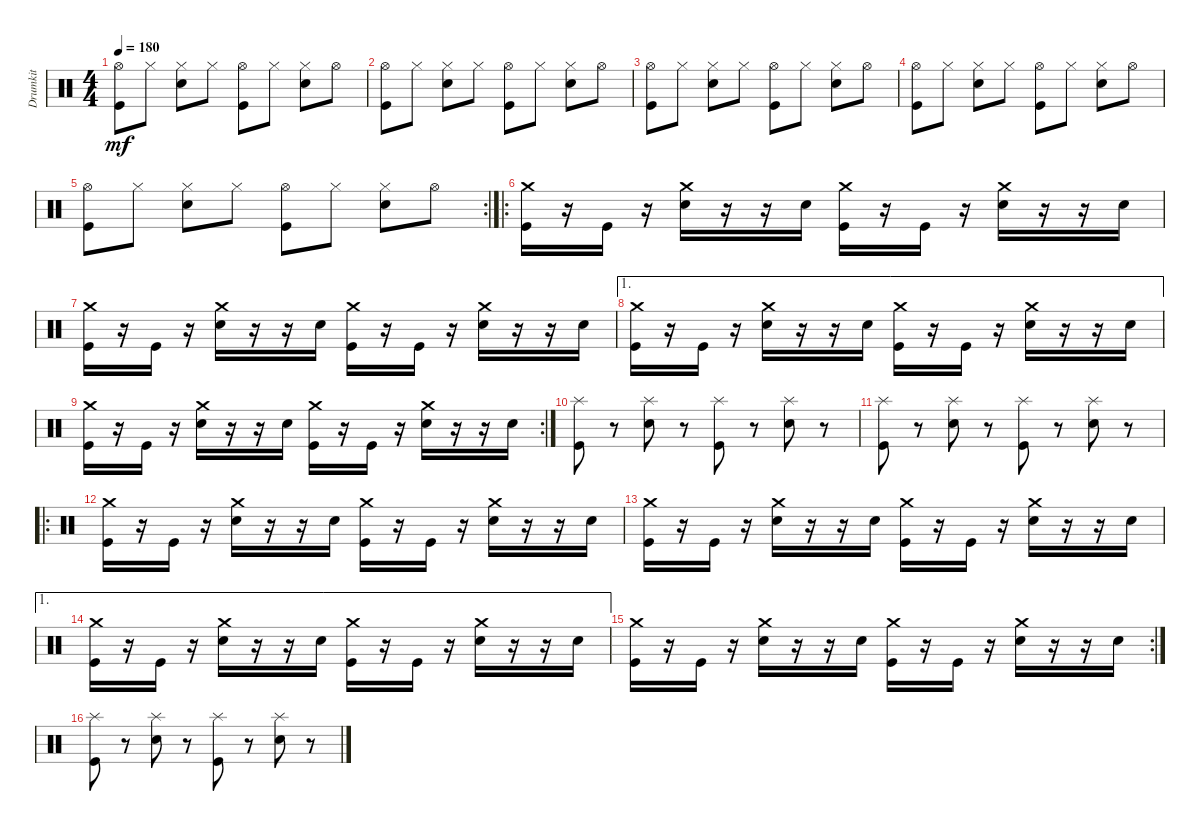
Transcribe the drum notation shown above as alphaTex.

\track ("Drumkit" "Drumkit") {instrument percussion}
\staff {score}
\articulation defaults
\ts (4 4)
\tempo 180
\clef neutral
\ks c
("Kick (hit)" "Hi-Hat (open)").8{dy mf} "Hi-Hat (closed)".8 ("Snare (hit) 2" "Hi-Hat (closed)").8 "Hi-Hat (closed)".8 ("Kick (hit)" "Hi-Hat (open)").8 "Hi-Hat (closed)".8 ("Snare (hit) 2" "Hi-Hat (closed)").8 "Hi-Hat (open)".8 |
("Kick (hit)" "Hi-Hat (open)").8 "Hi-Hat (closed)".8 ("Snare (hit) 2" "Hi-Hat (closed)").8 "Hi-Hat (closed)".8 ("Kick (hit)" "Hi-Hat (open)").8 "Hi-Hat (closed)".8 ("Snare (hit) 2" "Hi-Hat (closed)").8 "Hi-Hat (open)".8 |
("Kick (hit)" "Hi-Hat (open)").8 "Hi-Hat (closed)".8 ("Snare (hit) 2" "Hi-Hat (closed)").8 "Hi-Hat (closed)".8 ("Kick (hit)" "Hi-Hat (open)").8 "Hi-Hat (closed)".8 ("Snare (hit) 2" "Hi-Hat (closed)").8 "Hi-Hat (open)".8 |
("Kick (hit)" "Hi-Hat (open)").8 "Hi-Hat (closed)".8 ("Snare (hit) 2" "Hi-Hat (closed)").8 "Hi-Hat (closed)".8 ("Kick (hit)" "Hi-Hat (open)").8 "Hi-Hat (closed)".8 ("Snare (hit) 2" "Hi-Hat (closed)").8 "Hi-Hat (open)".8 |
\rc 2
("Kick (hit)" "Hi-Hat (open)").8 "Hi-Hat (closed)".8 ("Snare (hit) 2" "Hi-Hat (closed)").8 "Hi-Hat (closed)".8 ("Kick (hit)" "Hi-Hat (open)").8 "Hi-Hat (closed)".8 ("Snare (hit) 2" "Hi-Hat (closed)").8 "Hi-Hat (open)".8 |
\ro
("Kick (hit)" "Crash medium (hit)").16 r.16 "Kick (hit)".16 r.16 ("Snare (hit) 2" "Crash medium (hit)").16 r.16 r.16 "Snare (hit) 2".16 ("Kick (hit)" "Crash medium (hit)").16 r.16 "Kick (hit)".16 r.16 ("Snare (hit) 2" "Crash medium (hit)").16 r.16 r.16 "Snare (hit) 2".16 |
("Kick (hit)" "Crash medium (hit)").16 r.16 "Kick (hit)".16 r.16 ("Snare (hit) 2" "Crash medium (hit)").16 r.16 r.16 "Snare (hit) 2".16 ("Kick (hit)" "Crash medium (hit)").16 r.16 "Kick (hit)".16 r.16 ("Snare (hit) 2" "Crash medium (hit)").16 r.16 r.16 "Snare (hit) 2".16 |
\ae 1
("Kick (hit)" "Crash medium (hit)").16 r.16 "Kick (hit)".16 r.16 ("Snare (hit) 2" "Crash medium (hit)").16 r.16 r.16 "Snare (hit) 2".16 ("Kick (hit)" "Crash medium (hit)").16 r.16 "Kick (hit)".16 r.16 ("Snare (hit) 2" "Crash medium (hit)").16 r.16 r.16 "Snare (hit) 2".16 |
\rc 2
("Kick (hit)" "Crash medium (hit)").16 r.16 "Kick (hit)".16 r.16 ("Snare (hit) 2" "Crash medium (hit)").16 r.16 r.16 "Snare (hit) 2".16 ("Kick (hit)" "Crash medium (hit)").16 r.16 "Kick (hit)".16 r.16 ("Snare (hit) 2" "Crash medium (hit)").16 r.16 r.16 "Snare (hit) 2".16 |
("Kick (hit)" "Splash (hit)").8 r.8 ("Snare (hit) 2" "Splash (hit)").8 r.8 ("Kick (hit)" "Splash (hit)").8 r.8 ("Snare (hit) 2" "Splash (hit)").8 r.8 |
("Kick (hit)" "Splash (hit)").8 r.8 ("Snare (hit) 2" "Splash (hit)").8 r.8 ("Kick (hit)" "Splash (hit)").8 r.8 ("Snare (hit) 2" "Splash (hit)").8 r.8 |
\ro
("Kick (hit)" "Crash medium (hit)").16 r.16 "Kick (hit)".16 r.16 ("Snare (hit) 2" "Crash medium (hit)").16 r.16 r.16 "Snare (hit) 2".16 ("Kick (hit)" "Crash medium (hit)").16 r.16 "Kick (hit)".16 r.16 ("Snare (hit) 2" "Crash medium (hit)").16 r.16 r.16 "Snare (hit) 2".16 |
("Kick (hit)" "Crash medium (hit)").16 r.16 "Kick (hit)".16 r.16 ("Snare (hit) 2" "Crash medium (hit)").16 r.16 r.16 "Snare (hit) 2".16 ("Kick (hit)" "Crash medium (hit)").16 r.16 "Kick (hit)".16 r.16 ("Snare (hit) 2" "Crash medium (hit)").16 r.16 r.16 "Snare (hit) 2".16 |
\ae 1
("Kick (hit)" "Crash medium (hit)").16 r.16 "Kick (hit)".16 r.16 ("Snare (hit) 2" "Crash medium (hit)").16 r.16 r.16 "Snare (hit) 2".16 ("Kick (hit)" "Crash medium (hit)").16 r.16 "Kick (hit)".16 r.16 ("Snare (hit) 2" "Crash medium (hit)").16 r.16 r.16 "Snare (hit) 2".16 |
\rc 2
("Kick (hit)" "Crash medium (hit)").16 r.16 "Kick (hit)".16 r.16 ("Snare (hit) 2" "Crash medium (hit)").16 r.16 r.16 "Snare (hit) 2".16 ("Kick (hit)" "Crash medium (hit)").16 r.16 "Kick (hit)".16 r.16 ("Snare (hit) 2" "Crash medium (hit)").16 r.16 r.16 "Snare (hit) 2".16 |
("Kick (hit)" "Splash (hit)").8 r.8 ("Snare (hit) 2" "Splash (hit)").8 r.8 ("Kick (hit)" "Splash (hit)").8 r.8 ("Snare (hit) 2" "Splash (hit)").8 r.8
